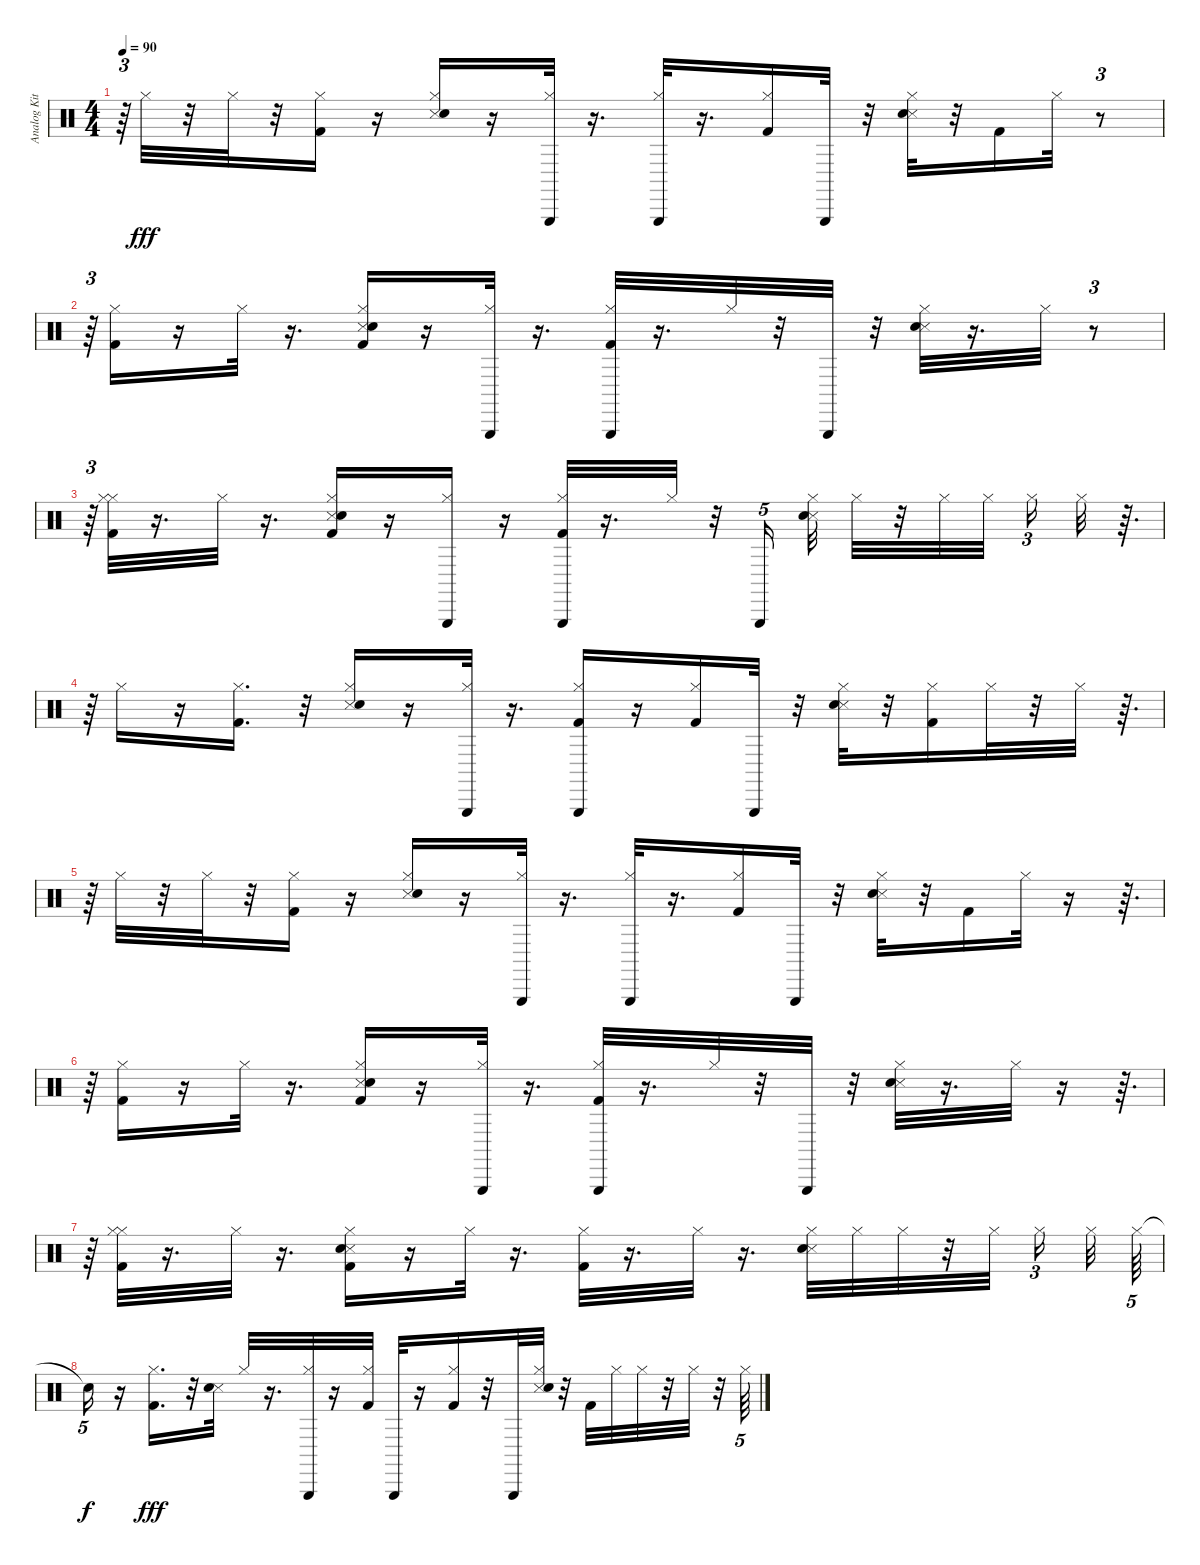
\track ("Analog Kit" "Analog Kit") {instrument percussion}
\staff {score}
\articulation defaults
\ts (4 4)
\tempo 90
\clef neutral
\ks c
r.64{tu (3 2) dy fff} "Hi-Hat (closed)".32 r.32 "Hi-Hat (closed)".32 r.32 ("Hi-Hat (closed)" "Kick (hit) 2").16 r.16 ("Snare (side stick) 3" "Electric Snare (hit)" "Hi-Hat (closed)").16 r.16 ("Hi-Hat (closed)" "Triangle (hit)").32 r.16{d} ("Hi-Hat (closed)" "Triangle (hit)").32 r.16{d} ("Kick (hit) 2" "Hi-Hat (closed)").16 "Triangle (hit)".32 r.32 ("Snare (side stick) 3" "Electric Snare (hit)" "Hi-Hat (closed)").32 r.32 "Kick (hit) 2".16 "Hi-Hat (closed)".32 r.8{tu (3 2)} |
r.64{tu (3 2)} ("Hi-Hat (closed)" "Kick (hit) 2").16 r.16 "Hi-Hat (closed)".32 r.16{d} ("Snare (side stick) 3" "Kick (hit) 2" "Electric Snare (hit)" "Hi-Hat (closed)").16 r.16 ("Triangle (hit)" "Hi-Hat (closed)").32 r.16{d} ("Kick (hit) 2" "Hi-Hat (closed)" "Triangle (hit)").32 r.16{d} "Hi-Hat (closed)".32 r.32 "Triangle (hit)".32 r.32 ("Snare (side stick) 3" "Electric Snare (hit)" "Hi-Hat (closed)").32 r.16{d} "Hi-Hat (closed)".32 r.8{tu (3 2)} |
r.64{tu (3 2)} ("Hi-Hat (closed)" "Hi-Hat (closed)" "Kick (hit) 2").32 r.16{d} "Hi-Hat (closed)".32 r.16{d} ("Hi-Hat (closed)" "Snare (side stick) 3" "Kick (hit) 2" "Electric Snare (hit)").16 r.16 ("Hi-Hat (closed)" "Triangle (hit)").16 r.16 ("Kick (hit) 2" "Hi-Hat (closed)" "Triangle (hit)").32 r.16{d} "Hi-Hat (closed)".32 r.32 "Triangle (hit)".16{tu (5 4)} ("Hi-Hat (closed)" "Snare (side stick) 3" "Electric Snare (hit)").32 "Hi-Hat (closed)".32 r.32 "Hi-Hat (closed)".32 "Hi-Hat (closed)".32{beam splitsecondary} "Hi-Hat (closed)".16{tu (3 2)} "Hi-Hat (closed)".32 r.64{d} |
r.64 "Hi-Hat (closed)".16 r.16 ("Kick (hit) 2" "Hi-Hat (closed)").16{d} r.32 ("Snare (side stick) 3" "Electric Snare (hit)" "Hi-Hat (closed)").16 r.16 ("Hi-Hat (closed)" "Triangle (hit)").32 r.16{d} ("Hi-Hat (closed)" "Kick (hit) 2" "Triangle (hit)").16 r.16 ("Kick (hit) 2" "Hi-Hat (closed)").16 "Triangle (hit)".32 r.32 ("Snare (side stick) 3" "Electric Snare (hit)" "Hi-Hat (closed)").32 r.32 ("Kick (hit) 2" "Hi-Hat (closed)").16 "Hi-Hat (closed)".32 r.32 "Hi-Hat (closed)".32 r.64{d} |
r.64 "Hi-Hat (closed)".32 r.32 "Hi-Hat (closed)".32 r.32 ("Hi-Hat (closed)" "Kick (hit) 2").16 r.16 ("Snare (side stick) 3" "Electric Snare (hit)" "Hi-Hat (closed)").16 r.16 ("Hi-Hat (closed)" "Triangle (hit)").32 r.16{d} ("Hi-Hat (closed)" "Triangle (hit)").32 r.16{d} ("Kick (hit) 2" "Hi-Hat (closed)").16 "Triangle (hit)".32 r.32 ("Snare (side stick) 3" "Electric Snare (hit)" "Hi-Hat (closed)").32 r.32 "Kick (hit) 2".16 "Hi-Hat (closed)".32 r.16 r.64{d} |
r.64 ("Hi-Hat (closed)" "Kick (hit) 2").16 r.16 "Hi-Hat (closed)".32 r.16{d} ("Snare (side stick) 3" "Kick (hit) 2" "Electric Snare (hit)" "Hi-Hat (closed)").16 r.16 ("Triangle (hit)" "Hi-Hat (closed)").32 r.16{d} ("Kick (hit) 2" "Hi-Hat (closed)" "Triangle (hit)").32 r.16{d} "Hi-Hat (closed)".32 r.32 "Triangle (hit)".32 r.32 ("Snare (side stick) 3" "Electric Snare (hit)" "Hi-Hat (closed)").32 r.16{d} "Hi-Hat (closed)".32 r.16 r.64{d} |
r.64 ("Hi-Hat (closed)" "Hi-Hat (closed)" "Kick (hit) 2").32 r.16{d} "Hi-Hat (closed)".32 r.16{d} ("Hi-Hat (closed)" "Snare (side stick) 3" "Kick (hit) 2" "Electric Snare (hit)").16 r.16 "Hi-Hat (closed)".32 r.16{d} ("Kick (hit) 2" "Hi-Hat (closed)").32 r.16{d} "Hi-Hat (closed)".32 r.16{d} ("Hi-Hat (closed)" "Snare (side stick) 3" "Electric Snare (hit)").32 "Hi-Hat (closed)".32 "Hi-Hat (closed)".32 r.32 "Hi-Hat (closed)".32{beam splitsecondary} "Hi-Hat (closed)".16{tu (3 2) beam splitsecondary} "Hi-Hat (closed)".32 "Hi-Hat (closed)".64{tu (5 4)} |
"Snare (hit)"{t}.16{tu (5 4) dy f} r.16 ("Kick (hit) 2" "Hi-Hat (closed)").16{d dy fff} r.32 ("Snare (side stick) 3" "Electric Snare (hit)").32 "Hi-Hat (closed)".32 r.16{d} ("Hi-Hat (closed)" "Triangle (hit)").32 r.16 ("Hi-Hat (closed)" "Kick (hit) 2").32 "Triangle (hit)".32 r.16 ("Kick (hit) 2" "Hi-Hat (closed)").16 r.32 "Triangle (hit)".32 ("Snare (side stick) 3" "Electric Snare (hit)" "Hi-Hat (closed)").32 r.32 "Kick (hit) 2".32 "Hi-Hat (closed)".32 "Hi-Hat (closed)".32 r.32 "Hi-Hat (closed)".32 r.32 "Hi-Hat (closed)".64{tu (5 4)}
